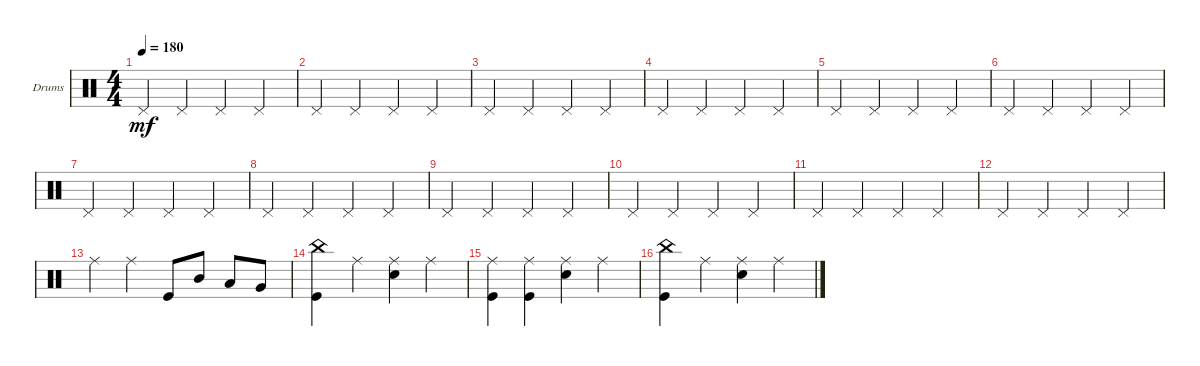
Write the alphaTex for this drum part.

\defaultSystemsLayout 4
\bracketExtendMode groupsimilarinstruments
\firstSystemTrackNameOrientation horizontal
\otherSystemsTrackNameOrientation horizontal
\track ("Drumkit" "Drums") {instrument percussion}
\staff {score}
\articulation defaults
\ts (4 4)
\tempo 180
\clef neutral
\scale
0.333333
\ks c "Pedal Hi-Hat (hit)".4{dy mf} "Pedal Hi-Hat (hit)".4 "Pedal Hi-Hat (hit)".4 "Pedal Hi-Hat (hit)".4
|
\scale
0.333333 "Pedal Hi-Hat (hit)".4 "Pedal Hi-Hat (hit)".4 "Pedal Hi-Hat (hit)".4 "Pedal Hi-Hat (hit)".4 |
\scale
0.333333 "Pedal Hi-Hat (hit)".4 "Pedal Hi-Hat (hit)".4 "Pedal Hi-Hat (hit)".4 "Pedal Hi-Hat (hit)".4 |
\scale
0.333333 "Pedal Hi-Hat (hit)".4 "Pedal Hi-Hat (hit)".4 "Pedal Hi-Hat (hit)".4 "Pedal Hi-Hat (hit)".4 |
\scale
0.333333 "Pedal Hi-Hat (hit)".4 "Pedal Hi-Hat (hit)".4 "Pedal Hi-Hat (hit)".4 "Pedal Hi-Hat (hit)".4 |
\scale
0.333333 "Pedal Hi-Hat (hit)".4 "Pedal Hi-Hat (hit)".4 "Pedal Hi-Hat (hit)".4 "Pedal Hi-Hat (hit)".4 |
\scale
0.333333 "Pedal Hi-Hat (hit)".4 "Pedal Hi-Hat (hit)".4 "Pedal Hi-Hat (hit)".4 "Pedal Hi-Hat (hit)".4 |
\scale
0.333333 "Pedal Hi-Hat (hit)".4 "Pedal Hi-Hat (hit)".4 "Pedal Hi-Hat (hit)".4 "Pedal Hi-Hat (hit)".4 |
\scale
0.333333 "Pedal Hi-Hat (hit)".4 "Pedal Hi-Hat (hit)".4 "Pedal Hi-Hat (hit)".4 "Pedal Hi-Hat (hit)".4 |
\scale
0.333333 "Pedal Hi-Hat (hit)".4 "Pedal Hi-Hat (hit)".4 "Pedal Hi-Hat (hit)".4 "Pedal Hi-Hat (hit)".4 |
\scale
0.333333 "Pedal Hi-Hat (hit)".4 "Pedal Hi-Hat (hit)".4 "Pedal Hi-Hat (hit)".4 "Pedal Hi-Hat (hit)".4 |
"Pedal Hi-Hat (hit)".4 "Pedal Hi-Hat (hit)".4 "Pedal Hi-Hat (hit)".4 "Pedal Hi-Hat (hit)".4 |
"Ride (middle)".4 "Ride (middle)".4 "Kick (hit)".8 "Mid Tom (hit)".8 "Low Tom (hit)".8 "Very Low Tom (hit)".8 |
("Kick (hit)" "China (hit)").4 "Ride (middle)".4 ("Ride (middle)" "Snare (hit) 2").4 "Ride (middle)".4 |
("Ride (middle)" "Kick (hit)").4 ("Ride (middle)" "Kick (hit)").4 ("Ride (middle)" "Snare (hit) 2").4 "Ride (middle)".4 |
("Kick (hit)" "China (hit)").4 "Ride (middle)".4 ("Ride (middle)" "Snare (hit) 2").4 "Ride (middle)".4
